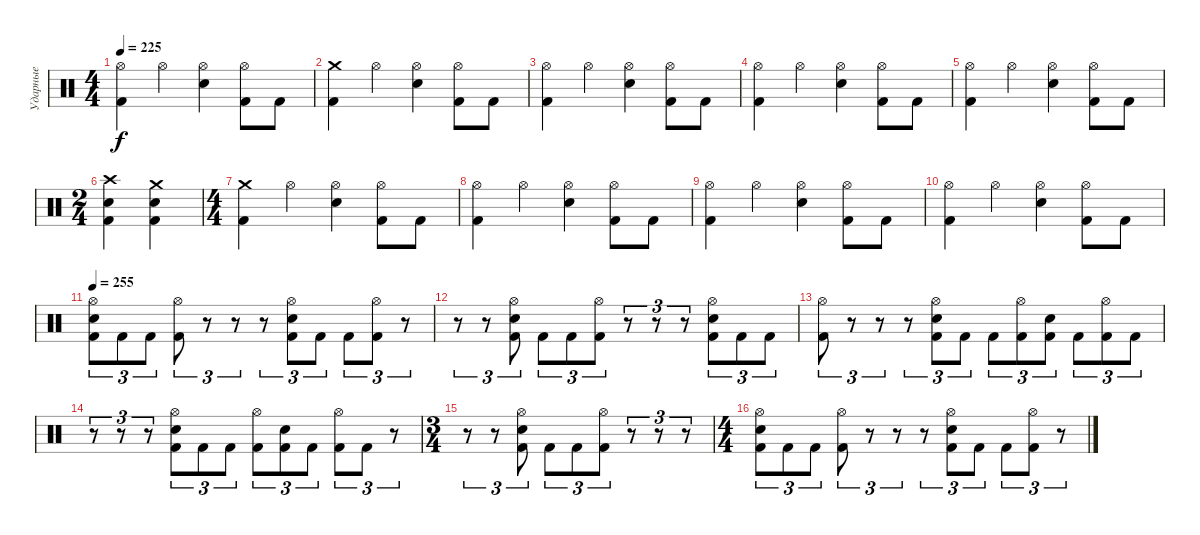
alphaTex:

\track ("Ударные" "Ударные") {instrument percussion}
\staff {score}
\articulation defaults
\ts (4 4)
\tempo 225
\clef neutral
\ks c
("Hi-Hat (open)" "Kick (hit) 2").4{dy f} "Hi-Hat (open)".4 ("Hi-Hat (open)" "Snare (hit) 2").4 ("Hi-Hat (open)" "Kick (hit) 2").8 "Kick (hit) 2".8 |
("Crash medium (hit)" "Kick (hit) 2").4 "Hi-Hat (open)".4 ("Hi-Hat (open)" "Snare (hit) 2").4 ("Hi-Hat (open)" "Kick (hit) 2").8 "Kick (hit) 2".8 |
("Hi-Hat (open)" "Kick (hit) 2").4 "Hi-Hat (open)".4 ("Hi-Hat (open)" "Snare (hit) 2").4 ("Hi-Hat (open)" "Kick (hit) 2").8 "Kick (hit) 2".8 |
("Hi-Hat (open)" "Kick (hit) 2").4 "Hi-Hat (open)".4 ("Hi-Hat (open)" "Snare (hit) 2").4 ("Hi-Hat (open)" "Kick (hit) 2").8 "Kick (hit) 2".8 |
("Hi-Hat (open)" "Kick (hit) 2").4 "Hi-Hat (open)".4 ("Hi-Hat (open)" "Snare (hit) 2").4 ("Hi-Hat (open)" "Kick (hit) 2").8 "Kick (hit) 2".8 |
\ts (2 4)
("Crash high (hit)" "Snare (hit) 2" "Kick (hit) 2").4 ("Crash medium (hit)" "Snare (hit) 2" "Kick (hit) 2").4 |
\ts (4 4)
("Crash medium (hit)" "Kick (hit) 2").4 "Hi-Hat (open)".4 ("Hi-Hat (open)" "Snare (hit) 2").4 ("Hi-Hat (open)" "Kick (hit) 2").8 "Kick (hit) 2".8 |
("Hi-Hat (open)" "Kick (hit) 2").4 "Hi-Hat (open)".4 ("Hi-Hat (open)" "Snare (hit) 2").4 ("Hi-Hat (open)" "Kick (hit) 2").8 "Kick (hit) 2".8 |
("Hi-Hat (open)" "Kick (hit) 2").4 "Hi-Hat (open)".4 ("Hi-Hat (open)" "Snare (hit) 2").4 ("Hi-Hat (open)" "Kick (hit) 2").8 "Kick (hit) 2".8 |
("Hi-Hat (open)" "Kick (hit) 2").4 "Hi-Hat (open)".4 ("Hi-Hat (open)" "Snare (hit) 2").4 ("Hi-Hat (open)" "Kick (hit) 2").8 "Kick (hit) 2".8 |
\tempo 255
("Hi-Hat (open)" "Snare (hit) 2" "Kick (hit) 2").8{tu (3 2)} "Kick (hit) 2".8{tu (3 2)} "Kick (hit) 2".8{tu (3 2)} ("Hi-Hat (open)" "Kick (hit) 2").8{tu (3 2)} r.8{tu (3 2)} r.8{tu (3 2)} r.8{tu (3 2)} ("Hi-Hat (open)" "Snare (hit) 2" "Kick (hit) 2").8{tu (3 2)} "Kick (hit) 2".8{tu (3 2)} "Kick (hit) 2".8{tu (3 2)} ("Hi-Hat (open)" "Kick (hit) 2").8{tu (3 2)} r.8{tu (3 2)} |
r.8{tu (3 2)} r.8{tu (3 2)} ("Hi-Hat (open)" "Snare (hit) 2" "Kick (hit) 2").8{tu (3 2)} "Kick (hit) 2".8{tu (3 2)} "Kick (hit) 2".8{tu (3 2)} ("Hi-Hat (open)" "Kick (hit) 2").8{tu (3 2)} r.8{tu (3 2)} r.8{tu (3 2)} r.8{tu (3 2)} ("Hi-Hat (open)" "Snare (hit) 2" "Kick (hit) 2").8{tu (3 2)} "Kick (hit) 2".8{tu (3 2)} "Kick (hit) 2".8{tu (3 2)} |
("Hi-Hat (open)" "Kick (hit) 2").8{tu (3 2)} r.8{tu (3 2)} r.8{tu (3 2)} r.8{tu (3 2)} ("Hi-Hat (open)" "Snare (hit) 2" "Kick (hit) 2").8{tu (3 2)} "Kick (hit) 2".8{tu (3 2)} "Kick (hit) 2".8{tu (3 2)} ("Hi-Hat (open)" "Kick (hit) 2").8{tu (3 2)} ("Snare (hit) 2" "Kick (hit) 2").8{tu (3 2)} "Kick (hit) 2".8{tu (3 2)} ("Hi-Hat (open)" "Kick (hit) 2").8{tu (3 2)} "Kick (hit) 2".8{tu (3 2)} |
r.8{tu (3 2)} r.8{tu (3 2)} r.8{tu (3 2)} ("Hi-Hat (open)" "Snare (hit) 2" "Kick (hit) 2").8{tu (3 2)} "Kick (hit) 2".8{tu (3 2)} "Kick (hit) 2".8{tu (3 2)} ("Hi-Hat (open)" "Kick (hit) 2").8{tu (3 2)} ("Snare (hit) 2" "Kick (hit) 2").8{tu (3 2)} "Kick (hit) 2".8{tu (3 2)} ("Hi-Hat (open)" "Kick (hit) 2").8{tu (3 2)} "Kick (hit) 2".8{tu (3 2)} r.8{tu (3 2)} |
\ts (3 4)
r.8{tu (3 2)} r.8{tu (3 2)} ("Hi-Hat (open)" "Snare (hit) 2" "Kick (hit) 2").8{tu (3 2)} "Kick (hit) 2".8{tu (3 2)} "Kick (hit) 2".8{tu (3 2)} ("Hi-Hat (open)" "Kick (hit) 2").8{tu (3 2)} r.8{tu (3 2)} r.8{tu (3 2)} r.8{tu (3 2)} |
\ts (4 4)
("Hi-Hat (open)" "Snare (hit) 2" "Kick (hit) 2").8{tu (3 2)} "Kick (hit) 2".8{tu (3 2)} "Kick (hit) 2".8{tu (3 2)} ("Hi-Hat (open)" "Kick (hit) 2").8{tu (3 2)} r.8{tu (3 2)} r.8{tu (3 2)} r.8{tu (3 2)} ("Hi-Hat (open)" "Snare (hit) 2" "Kick (hit) 2").8{tu (3 2)} "Kick (hit) 2".8{tu (3 2)} "Kick (hit) 2".8{tu (3 2)} ("Hi-Hat (open)" "Kick (hit) 2").8{tu (3 2)} r.8{tu (3 2)}
